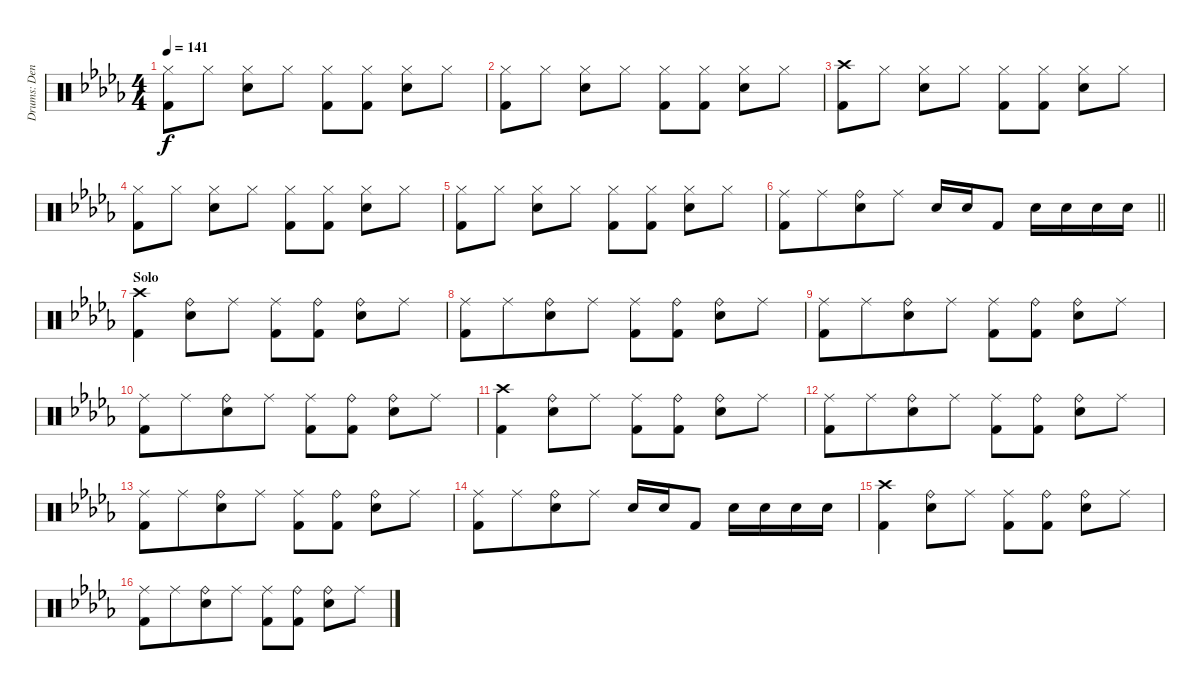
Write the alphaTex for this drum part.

\track ("Drums: Denny" "Drums: Den") {instrument percussion}
\staff {score}
\articulation defaults
\ts (4 4)
\tempo 141
\clef neutral
\ks db
("Hi-Hat (closed)" "Kick (hit) 2").8{dy f} "Hi-Hat (closed)".8 ("Hi-Hat (closed)" "Snare (hit) 2").8 "Hi-Hat (closed)".8 ("Hi-Hat (closed)" "Kick (hit) 2").8 ("Hi-Hat (closed)" "Kick (hit) 2").8 ("Hi-Hat (closed)" "Snare (hit) 2").8 "Hi-Hat (closed)".8 |
("Hi-Hat (closed)" "Kick (hit) 2").8 "Hi-Hat (closed)".8 ("Hi-Hat (closed)" "Snare (hit) 2").8 "Hi-Hat (closed)".8 ("Hi-Hat (closed)" "Kick (hit) 2").8 ("Hi-Hat (closed)" "Kick (hit) 2").8 ("Hi-Hat (closed)" "Snare (hit) 2").8 "Hi-Hat (closed)".8 |
("Crash high (hit)" "Kick (hit) 2").8 "Hi-Hat (closed)".8 ("Hi-Hat (closed)" "Snare (hit) 2").8 "Hi-Hat (closed)".8 ("Hi-Hat (closed)" "Kick (hit) 2").8 ("Hi-Hat (closed)" "Kick (hit) 2").8 ("Hi-Hat (closed)" "Snare (hit) 2").8 "Hi-Hat (closed)".8 |
("Hi-Hat (closed)" "Kick (hit) 2").8 "Hi-Hat (closed)".8 ("Hi-Hat (closed)" "Snare (hit) 2").8 "Hi-Hat (closed)".8 ("Hi-Hat (closed)" "Kick (hit) 2").8 ("Hi-Hat (closed)" "Kick (hit) 2").8 ("Hi-Hat (closed)" "Snare (hit) 2").8 "Hi-Hat (closed)".8 |
("Hi-Hat (closed)" "Kick (hit) 2").8 "Hi-Hat (closed)".8 ("Hi-Hat (closed)" "Snare (hit) 2").8 "Hi-Hat (closed)".8 ("Hi-Hat (closed)" "Kick (hit) 2").8 ("Hi-Hat (closed)" "Kick (hit) 2").8 ("Hi-Hat (closed)" "Snare (hit) 2").8 "Hi-Hat (closed)".8 |
\barLineRight lightlight
("Ride (middle)" "Kick (hit) 2").8 "Ride (middle)".8{beam merge} ("Ride (bell)" "Snare (hit) 2").8 "Ride (middle)".8 "Snare (hit) 2".16 "Snare (hit) 2".16 "Kick (hit) 2".8 "Snare (hit) 2".16 "Snare (hit) 2".16 "Snare (hit) 2".16 "Snare (hit) 2".16 |
\section ("" "Solo")
("Crash high (hit)" "Kick (hit) 2").4{beam merge} ("Ride (bell)" "Snare (hit) 2").8 "Ride (middle)".8 ("Ride (middle)" "Kick (hit) 2").8 ("Ride (bell)" "Kick (hit) 2").8 ("Ride (bell)" "Snare (hit) 2").8 "Ride (middle)".8 |
("Ride (middle)" "Kick (hit) 2").8 "Ride (middle)".8{beam merge} ("Ride (bell)" "Snare (hit) 2").8 "Ride (middle)".8 ("Ride (middle)" "Kick (hit) 2").8 ("Ride (bell)" "Kick (hit) 2").8 ("Ride (bell)" "Snare (hit) 2").8 "Ride (middle)".8 |
("Ride (middle)" "Kick (hit) 2").8 "Ride (middle)".8{beam merge} ("Ride (bell)" "Snare (hit) 2").8 "Ride (middle)".8 ("Ride (middle)" "Kick (hit) 2").8 ("Ride (bell)" "Kick (hit) 2").8 ("Ride (bell)" "Snare (hit) 2").8 "Ride (middle)".8 |
("Ride (middle)" "Kick (hit) 2").8 "Ride (middle)".8{beam merge} ("Ride (bell)" "Snare (hit) 2").8 "Ride (middle)".8 ("Ride (middle)" "Kick (hit) 2").8 ("Ride (bell)" "Kick (hit) 2").8 ("Ride (bell)" "Snare (hit) 2").8 "Ride (middle)".8 |
("Crash high (hit)" "Kick (hit) 2").4{beam merge} ("Ride (bell)" "Snare (hit) 2").8 "Ride (middle)".8 ("Ride (middle)" "Kick (hit) 2").8 ("Ride (bell)" "Kick (hit) 2").8 ("Ride (bell)" "Snare (hit) 2").8 "Ride (middle)".8 |
("Ride (middle)" "Kick (hit) 2").8 "Ride (middle)".8{beam merge} ("Ride (bell)" "Snare (hit) 2").8 "Ride (middle)".8 ("Ride (middle)" "Kick (hit) 2").8 ("Ride (bell)" "Kick (hit) 2").8 ("Ride (bell)" "Snare (hit) 2").8 "Ride (middle)".8 |
("Ride (middle)" "Kick (hit) 2").8 "Ride (middle)".8{beam merge} ("Ride (bell)" "Snare (hit) 2").8 "Ride (middle)".8 ("Ride (middle)" "Kick (hit) 2").8 ("Ride (bell)" "Kick (hit) 2").8 ("Ride (bell)" "Snare (hit) 2").8 "Ride (middle)".8 |
("Ride (middle)" "Kick (hit) 2").8 "Ride (middle)".8{beam merge} ("Ride (bell)" "Snare (hit) 2").8 "Ride (middle)".8 "Snare (hit) 2".16 "Snare (hit) 2".16 "Kick (hit) 2".8 "Snare (hit) 2".16 "Snare (hit) 2".16 "Snare (hit) 2".16 "Snare (hit) 2".16 |
("Crash high (hit)" "Kick (hit) 2").4{beam merge} ("Ride (bell)" "Snare (hit) 2").8 "Ride (middle)".8 ("Ride (middle)" "Kick (hit) 2").8 ("Ride (bell)" "Kick (hit) 2").8 ("Ride (bell)" "Snare (hit) 2").8 "Ride (middle)".8 |
("Ride (middle)" "Kick (hit) 2").8 "Ride (middle)".8{beam merge} ("Ride (bell)" "Snare (hit) 2").8 "Ride (middle)".8 ("Ride (middle)" "Kick (hit) 2").8 ("Ride (bell)" "Kick (hit) 2").8 ("Ride (bell)" "Snare (hit) 2").8 "Ride (middle)".8
